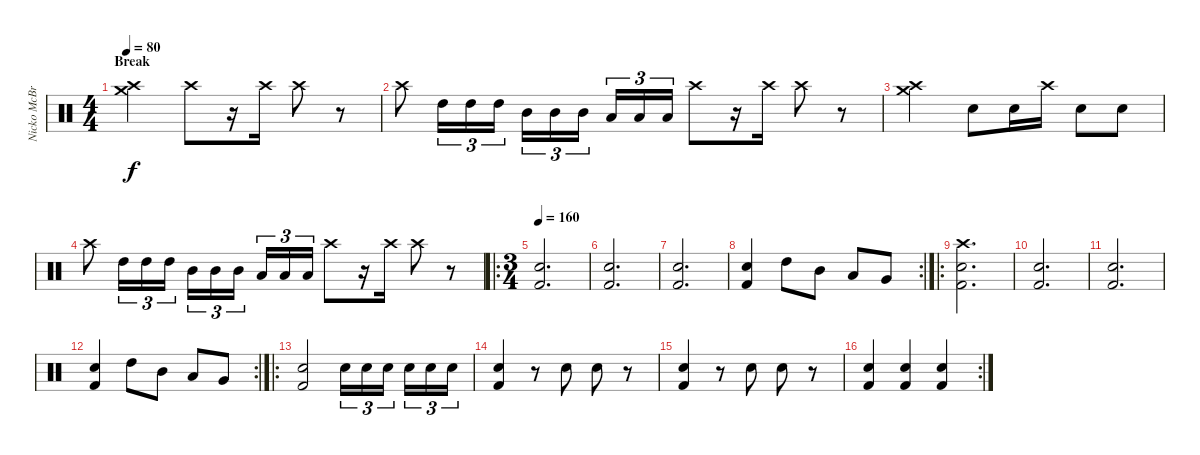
\track ("Nicko McBrain" "Nicko McBr") {instrument percussion}
\staff {score}
\articulation defaults
\ts (4 4)
\section ("" "Break")
\tempo 80
\clef neutral
\ks c
("Crash high (hit)" "Crash medium (hit)").2{dy f} "Crash high (hit)".8 r.16 "Crash high (hit)".16 "Crash high (hit)".8 r.8 |
"Crash high (hit)".8 "High Tom (hit)".16{tu (3 2)} "High Tom (hit)".16{tu (3 2)} "High Tom (hit)".16{tu (3 2)} "Mid Tom (hit)".16{tu (3 2)} "Mid Tom (hit)".16{tu (3 2)} "Mid Tom (hit)".16{tu (3 2) beam splitsecondary} "Low Tom (hit)".16{tu (3 2)} "Low Tom (hit)".16{tu (3 2)} "Low Tom (hit)".16{tu (3 2)} "Crash high (hit)".8 r.16 "Crash high (hit)".16 "Crash high (hit)".8 r.8 |
("Crash high (hit)" "Crash medium (hit)").2 "Snare (hit) 2".8 "Snare (hit) 2".16 "Crash high (hit)".16 "Snare (hit) 2".8 "Snare (hit) 2".8 |
"Crash high (hit)".8 "High Tom (hit)".16{tu (3 2)} "High Tom (hit)".16{tu (3 2)} "High Tom (hit)".16{tu (3 2)} "Mid Tom (hit)".16{tu (3 2)} "Mid Tom (hit)".16{tu (3 2)} "Mid Tom (hit)".16{tu (3 2) beam splitsecondary} "Low Tom (hit)".16{tu (3 2)} "Low Tom (hit)".16{tu (3 2)} "Low Tom (hit)".16{tu (3 2)} "Crash high (hit)".8 r.16 "Crash high (hit)".16 "Crash high (hit)".8 r.8 |
\ro
\ts (3 4)
\tempo 160
("Snare (hit) 2" "Kick (hit) 2").2{d} |
("Snare (hit) 2" "Kick (hit) 2").2{d} |
("Snare (hit) 2" "Kick (hit) 2").2{d} |
\rc 2
("Snare (hit) 2" "Kick (hit) 2").4 "High Tom (hit)".8 "Mid Tom (hit)".8 "Low Tom (hit)".8 "Very Low Tom (hit)".8 |
\ro
("Crash high (hit)" "Snare (hit) 2" "Kick (hit) 2").2{d} |
("Snare (hit) 2" "Kick (hit) 2").2{d} |
("Snare (hit) 2" "Kick (hit) 2").2{d} |
\rc 2
("Snare (hit) 2" "Kick (hit) 2").4 "High Tom (hit)".8 "Mid Tom (hit)".8 "Low Tom (hit)".8 "Very Low Tom (hit)".8 |
\ro
("Snare (hit) 2" "Kick (hit) 2").2 "Snare (hit) 2".16{tu (3 2)} "Snare (hit) 2".16{tu (3 2)} "Snare (hit) 2".16{tu (3 2) beam splitsecondary} "Snare (hit) 2".16{tu (3 2)} "Snare (hit) 2".16{tu (3 2)} "Snare (hit) 2".16{tu (3 2)} |
("Snare (hit) 2" "Kick (hit) 2").4 r.8 "Snare (hit) 2".8 "Snare (hit) 2".8 r.8 |
("Snare (hit) 2" "Kick (hit) 2").4 r.8 "Snare (hit) 2".8 "Snare (hit) 2".8 r.8 |
\rc 2
("Snare (hit) 2" "Kick (hit) 2").4 ("Snare (hit) 2" "Kick (hit) 2").4 ("Snare (hit) 2" "Kick (hit) 2").4
